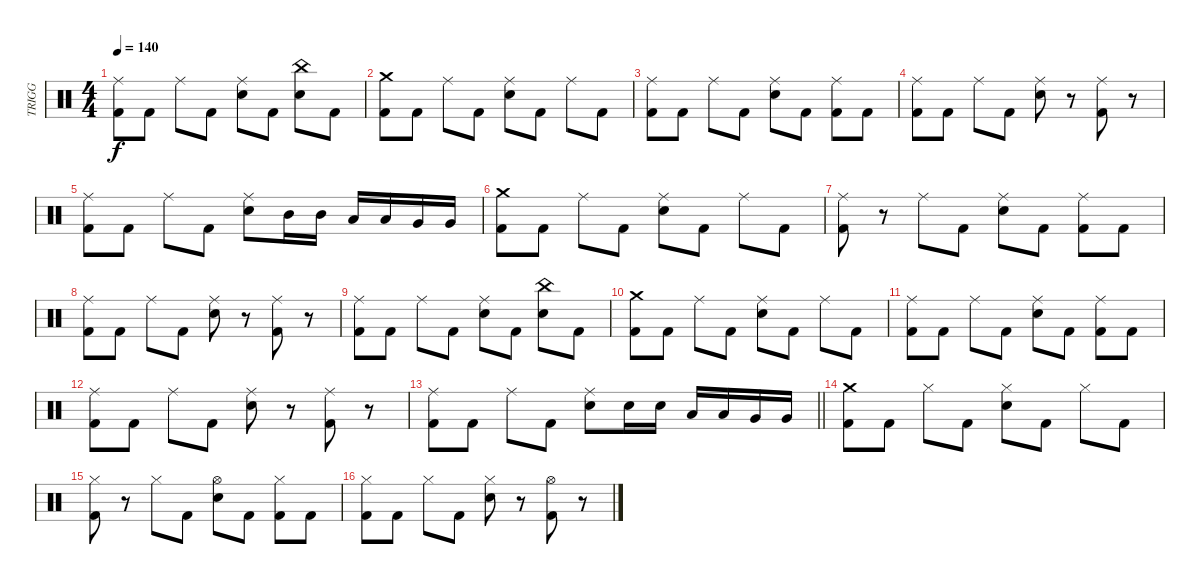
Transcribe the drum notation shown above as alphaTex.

\track ("TRIGG" "TRIGG") {instrument percussion}
\staff {score}
\articulation defaults
\ts (4 4)
\tempo 140
\clef neutral
\ks c
("Ride (middle)" "Kick (hit) 2").8{dy f} "Kick (hit) 2".8 "Ride (middle)".8 "Kick (hit) 2".8 ("Ride (middle)" "Electric Snare (hit)").8 "Kick (hit) 2".8 ("China (hit)" "Electric Snare (hit)").8 "Kick (hit) 2".8 |
("Crash medium (hit)" "Kick (hit) 2").8 "Kick (hit) 2".8 "Ride (middle)".8 "Kick (hit) 2".8 ("Ride (middle)" "Electric Snare (hit)").8 "Kick (hit) 2".8 "Ride (middle)".8 "Kick (hit) 2".8 |
("Ride (middle)" "Kick (hit) 2").8 "Kick (hit) 2".8 "Ride (middle)".8 "Kick (hit) 2".8 ("Ride (middle)" "Electric Snare (hit)").8 "Kick (hit) 2".8 ("Ride (middle)" "Kick (hit) 2").8 "Kick (hit) 2".8 |
("Ride (middle)" "Kick (hit) 2").8 "Kick (hit) 2".8 "Ride (middle)".8 "Kick (hit) 2".8 ("Ride (middle)" "Electric Snare (hit)").8 r.8 ("Ride (middle)" "Kick (hit) 2").8 r.8 |
("Ride (middle)" "Kick (hit) 2").8 "Kick (hit) 2".8 "Ride (middle)".8 "Kick (hit) 2".8 ("Ride (middle)" "Electric Snare (hit)").8 "Mid Tom (hit)".16 "Mid Tom (hit)".16 "Low Tom (hit)".16 "Low Tom (hit)".16 "Very Low Tom (hit)".16 "Very Low Tom (hit)".16 |
("Crash medium (hit)" "Kick (hit) 2").8 "Kick (hit) 2".8 "Ride (middle)".8 "Kick (hit) 2".8 ("Ride (middle)" "Electric Snare (hit)").8 "Kick (hit) 2".8 "Ride (middle)".8 "Kick (hit) 2".8 |
("Ride (middle)" "Kick (hit) 2").8 r.8 "Ride (middle)".8 "Kick (hit) 2".8 ("Ride (middle)" "Electric Snare (hit)").8 "Kick (hit) 2".8 ("Ride (middle)" "Kick (hit) 2").8 "Kick (hit) 2".8 |
("Ride (middle)" "Kick (hit) 2").8 "Kick (hit) 2".8 "Ride (middle)".8 "Kick (hit) 2".8 ("Ride (middle)" "Electric Snare (hit)").8 r.8 ("Ride (middle)" "Kick (hit) 2").8 r.8 |
("Ride (middle)" "Kick (hit) 2").8 "Kick (hit) 2".8 "Ride (middle)".8 "Kick (hit) 2".8 ("Ride (middle)" "Electric Snare (hit)").8 "Kick (hit) 2".8 ("China (hit)" "Electric Snare (hit)").8 "Kick (hit) 2".8 |
("Crash medium (hit)" "Kick (hit) 2").8 "Kick (hit) 2".8 "Ride (middle)".8 "Kick (hit) 2".8 ("Ride (middle)" "Electric Snare (hit)").8 "Kick (hit) 2".8 "Ride (middle)".8 "Kick (hit) 2".8 |
("Ride (middle)" "Kick (hit) 2").8 "Kick (hit) 2".8 "Ride (middle)".8 "Kick (hit) 2".8 ("Ride (middle)" "Electric Snare (hit)").8 "Kick (hit) 2".8 ("Ride (middle)" "Kick (hit) 2").8 "Kick (hit) 2".8 |
("Ride (middle)" "Kick (hit) 2").8 "Kick (hit) 2".8 "Ride (middle)".8 "Kick (hit) 2".8 ("Ride (middle)" "Electric Snare (hit)").8 r.8 ("Ride (middle)" "Kick (hit) 2").8 r.8 |
\barLineRight lightlight
("Ride (middle)" "Kick (hit) 2").8 "Kick (hit) 2".8 "Ride (middle)".8 "Kick (hit) 2".8 ("Ride (middle)" "Electric Snare (hit)").8 "Electric Snare (hit)".16 "Electric Snare (hit)".16 "Low Tom (hit)".16 "Low Tom (hit)".16 "Very Low Tom (hit)".16 "Very Low Tom (hit)".16 |
("Crash medium (hit)" "Kick (hit) 2").8 "Kick (hit) 2".8 "Hi-Hat (closed)".8 "Kick (hit) 2".8 ("Hi-Hat (closed)" "Electric Snare (hit)").8 "Kick (hit) 2".8 "Hi-Hat (closed)".8 "Kick (hit) 2".8 |
("Hi-Hat (closed)" "Kick (hit) 2").8 r.8 "Hi-Hat (closed)".8 "Kick (hit) 2".8 ("Hi-Hat (open)" "Electric Snare (hit)").8 "Kick (hit) 2".8 ("Hi-Hat (closed)" "Kick (hit) 2").8 "Kick (hit) 2".8 |
("Hi-Hat (closed)" "Kick (hit) 2").8 "Kick (hit) 2".8 "Hi-Hat (closed)".8 "Kick (hit) 2".8 ("Hi-Hat (closed)" "Electric Snare (hit)").8 r.8 ("Hi-Hat (open)" "Kick (hit) 2").8 r.8
